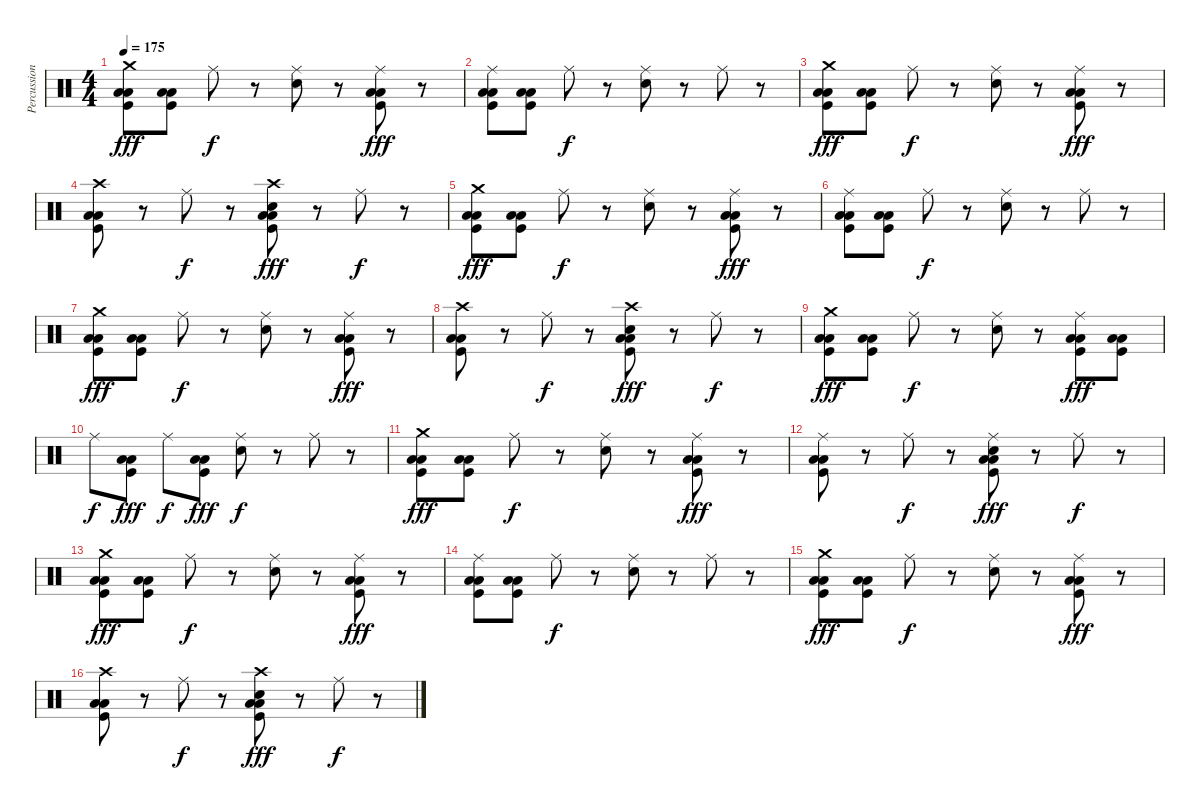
\track ("Percussions" "Percussion") {instrument percussion}
\staff {score}
\articulation defaults
\ts (4 4)
\tempo 175
\clef neutral
\ks c
("Crash medium (hit)" "Low Tom (hit)" "Low Floor Tom (hit)" "Kick (hit)").8{dy fff} ("Low Tom (hit)" "Low Floor Tom (hit)" "Kick (hit)").8 "Ride (middle)".8{dy f} r.8 ("Ride (middle)" "Snare (hit) 2").8 r.8 ("Ride (middle)" "Low Tom (hit)" "Low Floor Tom (hit)" "Kick (hit)").8{dy fff} r.8 |
("Ride (middle)" "Low Tom (hit)" "Low Floor Tom (hit)" "Kick (hit)").8 ("Low Tom (hit)" "Low Floor Tom (hit)" "Kick (hit)").8 "Ride (middle)".8{dy f} r.8 ("Ride (middle)" "Snare (hit) 2").8 r.8 "Ride (middle)".8 r.8 |
("Crash medium (hit)" "Low Tom (hit)" "Low Floor Tom (hit)" "Kick (hit)").8{dy fff} ("Low Tom (hit)" "Low Floor Tom (hit)" "Kick (hit)").8 "Ride (middle)".8{dy f} r.8 ("Ride (middle)" "Snare (hit) 2").8 r.8 ("Ride (middle)" "Low Tom (hit)" "Low Floor Tom (hit)" "Kick (hit)").8{dy fff} r.8 |
("Crash high (hit)" "Low Tom (hit)" "Low Floor Tom (hit)" "Kick (hit)").8 r.8 "Ride (middle)".8{dy f} r.8 ("Crash high (hit)" "Snare (hit) 2" "Low Tom (hit)" "Low Floor Tom (hit)" "Kick (hit)").8{dy fff} r.8 "Ride (middle)".8{dy f} r.8 |
("Crash medium (hit)" "Low Tom (hit)" "Low Floor Tom (hit)" "Kick (hit)").8{dy fff} ("Low Tom (hit)" "Low Floor Tom (hit)" "Kick (hit)").8 "Ride (middle)".8{dy f} r.8 ("Ride (middle)" "Snare (hit) 2").8 r.8 ("Ride (middle)" "Low Tom (hit)" "Low Floor Tom (hit)" "Kick (hit)").8{dy fff} r.8 |
("Ride (middle)" "Low Tom (hit)" "Low Floor Tom (hit)" "Kick (hit)").8 ("Low Tom (hit)" "Low Floor Tom (hit)" "Kick (hit)").8 "Ride (middle)".8{dy f} r.8 ("Ride (middle)" "Snare (hit) 2").8 r.8 "Ride (middle)".8 r.8 |
("Crash medium (hit)" "Low Tom (hit)" "Low Floor Tom (hit)" "Kick (hit)").8{dy fff} ("Low Tom (hit)" "Low Floor Tom (hit)" "Kick (hit)").8 "Ride (middle)".8{dy f} r.8 ("Ride (middle)" "Snare (hit) 2").8 r.8 ("Ride (middle)" "Low Tom (hit)" "Low Floor Tom (hit)" "Kick (hit)").8{dy fff} r.8 |
("Crash high (hit)" "Low Tom (hit)" "Low Floor Tom (hit)" "Kick (hit)").8 r.8 "Ride (middle)".8{dy f} r.8 ("Crash high (hit)" "Snare (hit) 2" "Low Tom (hit)" "Low Floor Tom (hit)" "Kick (hit)").8{dy fff} r.8 "Ride (middle)".8{dy f} r.8 |
("Crash medium (hit)" "Low Tom (hit)" "Low Floor Tom (hit)" "Kick (hit)").8{dy fff} ("Low Tom (hit)" "Low Floor Tom (hit)" "Kick (hit)").8 "Ride (middle)".8{dy f} r.8 ("Ride (middle)" "Snare (hit) 2").8 r.8 ("Ride (middle)" "Low Tom (hit)" "Low Floor Tom (hit)" "Kick (hit)").8{dy fff} ("Low Tom (hit)" "Low Floor Tom (hit)" "Kick (hit)").8 |
"Ride (middle)".8{dy f} ("Low Tom (hit)" "Low Floor Tom (hit)" "Kick (hit)").8{dy fff} "Ride (middle)".8{dy f} ("Low Tom (hit)" "Kick (hit)" "Low Floor Tom (hit)").8{dy fff} ("Ride (middle)" "Snare (hit) 2").8{dy f} r.8 "Ride (middle)".8 r.8 |
("Crash medium (hit)" "Low Tom (hit)" "Low Floor Tom (hit)" "Kick (hit)").8{dy fff} ("Low Tom (hit)" "Low Floor Tom (hit)" "Kick (hit)").8 "Ride (middle)".8{dy f} r.8 ("Ride (middle)" "Snare (hit) 2").8 r.8 ("Ride (middle)" "Low Tom (hit)" "Low Floor Tom (hit)" "Kick (hit)").8{dy fff} r.8 |
("Ride (middle)" "Low Tom (hit)" "Low Floor Tom (hit)" "Kick (hit)").8 r.8 "Ride (middle)".8{dy f} r.8 ("Ride (middle)" "Snare (hit) 2" "Low Tom (hit)" "Low Floor Tom (hit)" "Kick (hit)").8{dy fff} r.8 "Ride (middle)".8{dy f} r.8 |
("Crash medium (hit)" "Low Tom (hit)" "Low Floor Tom (hit)" "Kick (hit)").8{dy fff} ("Low Tom (hit)" "Low Floor Tom (hit)" "Kick (hit)").8 "Ride (middle)".8{dy f} r.8 ("Ride (middle)" "Snare (hit) 2").8 r.8 ("Ride (middle)" "Low Tom (hit)" "Low Floor Tom (hit)" "Kick (hit)").8{dy fff} r.8 |
("Ride (middle)" "Low Tom (hit)" "Low Floor Tom (hit)" "Kick (hit)").8 ("Low Tom (hit)" "Low Floor Tom (hit)" "Kick (hit)").8 "Ride (middle)".8{dy f} r.8 ("Ride (middle)" "Snare (hit) 2").8 r.8 "Ride (middle)".8 r.8 |
("Crash medium (hit)" "Low Tom (hit)" "Low Floor Tom (hit)" "Kick (hit)").8{dy fff} ("Low Tom (hit)" "Low Floor Tom (hit)" "Kick (hit)").8 "Ride (middle)".8{dy f} r.8 ("Ride (middle)" "Snare (hit) 2").8 r.8 ("Ride (middle)" "Low Tom (hit)" "Low Floor Tom (hit)" "Kick (hit)").8{dy fff} r.8 |
("Crash high (hit)" "Low Tom (hit)" "Low Floor Tom (hit)" "Kick (hit)").8 r.8 "Ride (middle)".8{dy f} r.8 ("Crash high (hit)" "Snare (hit) 2" "Low Tom (hit)" "Low Floor Tom (hit)" "Kick (hit)").8{dy fff} r.8 "Ride (middle)".8{dy f} r.8
